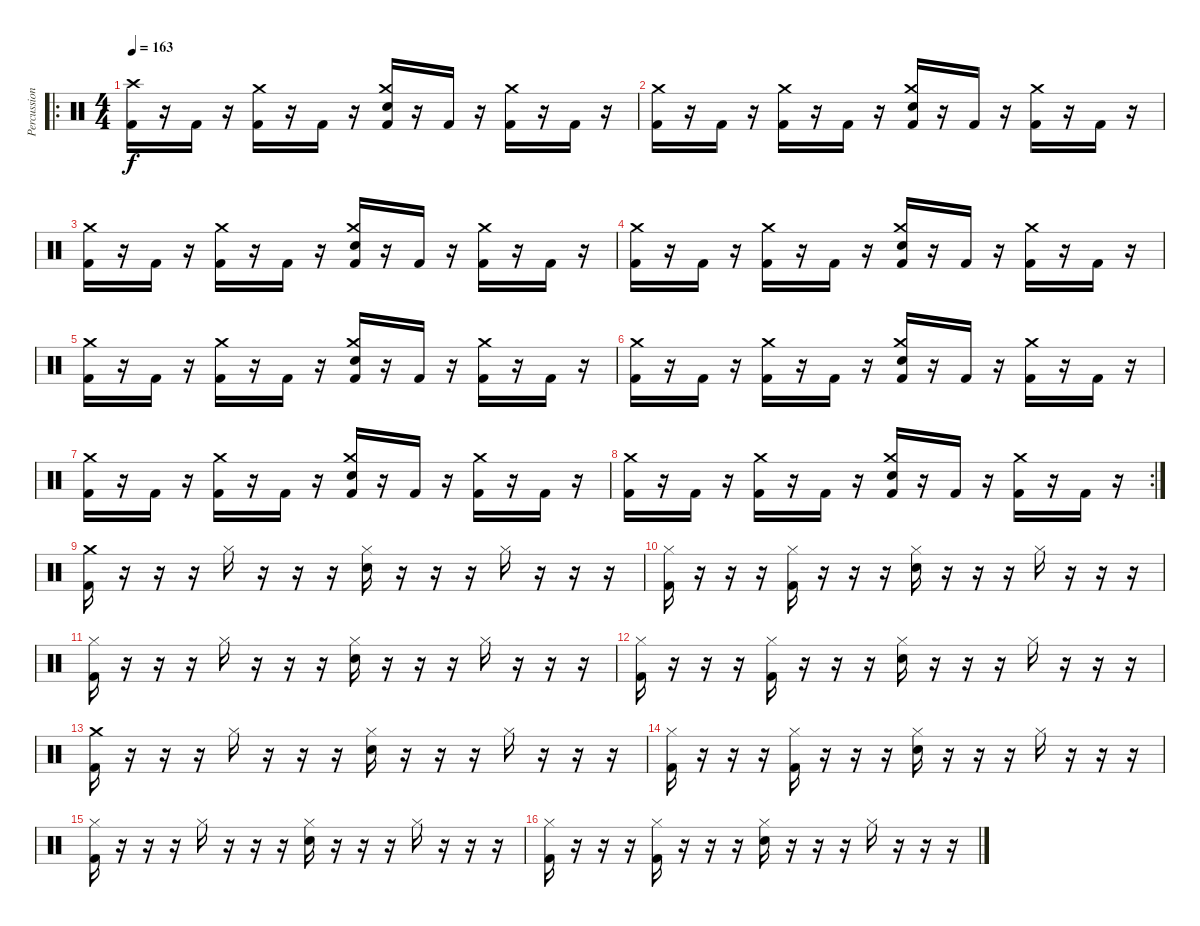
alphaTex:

\track ("Percussion" "Percussion") {instrument percussion}
\staff {score}
\articulation defaults
\ro
\ts (4 4)
\tempo 163
\clef neutral
\ks c
("Crash high (hit)" "Kick (hit) 2").16{dy f} r.16 "Kick (hit) 2".16 r.16 ("Crash medium (hit)" "Kick (hit) 2").16 r.16 "Kick (hit) 2".16 r.16 ("Crash medium (hit)" "Snare (hit) 2" "Kick (hit) 2").16 r.16 "Kick (hit) 2".16 r.16 ("Crash medium (hit)" "Kick (hit) 2").16 r.16 "Kick (hit) 2".16 r.16 |
("Crash medium (hit)" "Kick (hit) 2").16 r.16 "Kick (hit) 2".16 r.16 ("Crash medium (hit)" "Kick (hit) 2").16 r.16 "Kick (hit) 2".16 r.16 ("Crash medium (hit)" "Snare (hit) 2" "Kick (hit) 2").16 r.16 "Kick (hit) 2".16 r.16 ("Crash medium (hit)" "Kick (hit) 2").16 r.16 "Kick (hit) 2".16 r.16 |
("Crash medium (hit)" "Kick (hit) 2").16 r.16 "Kick (hit) 2".16 r.16 ("Crash medium (hit)" "Kick (hit) 2").16 r.16 "Kick (hit) 2".16 r.16 ("Crash medium (hit)" "Snare (hit) 2" "Kick (hit) 2").16 r.16 "Kick (hit) 2".16 r.16 ("Crash medium (hit)" "Kick (hit) 2").16 r.16 "Kick (hit) 2".16 r.16 |
("Crash medium (hit)" "Kick (hit) 2").16 r.16 "Kick (hit) 2".16 r.16 ("Crash medium (hit)" "Kick (hit) 2").16 r.16 "Kick (hit) 2".16 r.16 ("Crash medium (hit)" "Snare (hit) 2" "Kick (hit) 2").16 r.16 "Kick (hit) 2".16 r.16 ("Crash medium (hit)" "Kick (hit) 2").16 r.16 "Kick (hit) 2".16 r.16 |
("Crash medium (hit)" "Kick (hit) 2").16 r.16 "Kick (hit) 2".16 r.16 ("Crash medium (hit)" "Kick (hit) 2").16 r.16 "Kick (hit) 2".16 r.16 ("Crash medium (hit)" "Snare (hit) 2" "Kick (hit) 2").16 r.16 "Kick (hit) 2".16 r.16 ("Crash medium (hit)" "Kick (hit) 2").16 r.16 "Kick (hit) 2".16 r.16 |
("Crash medium (hit)" "Kick (hit) 2").16 r.16 "Kick (hit) 2".16 r.16 ("Crash medium (hit)" "Kick (hit) 2").16 r.16 "Kick (hit) 2".16 r.16 ("Crash medium (hit)" "Snare (hit) 2" "Kick (hit) 2").16 r.16 "Kick (hit) 2".16 r.16 ("Crash medium (hit)" "Kick (hit) 2").16 r.16 "Kick (hit) 2".16 r.16 |
("Crash medium (hit)" "Kick (hit) 2").16 r.16 "Kick (hit) 2".16 r.16 ("Crash medium (hit)" "Kick (hit) 2").16 r.16 "Kick (hit) 2".16 r.16 ("Crash medium (hit)" "Snare (hit) 2" "Kick (hit) 2").16 r.16 "Kick (hit) 2".16 r.16 ("Crash medium (hit)" "Kick (hit) 2").16 r.16 "Kick (hit) 2".16 r.16 |
\rc 2
("Crash medium (hit)" "Kick (hit) 2").16 r.16 "Kick (hit) 2".16 r.16 ("Crash medium (hit)" "Kick (hit) 2").16 r.16 "Kick (hit) 2".16 r.16 ("Crash medium (hit)" "Snare (hit) 2" "Kick (hit) 2").16 r.16 "Kick (hit) 2".16 r.16 ("Crash medium (hit)" "Kick (hit) 2").16 r.16 "Kick (hit) 2".16 r.16 |
("Crash medium (hit)" "Kick (hit) 2").16 r.16 r.16 r.16 "Hi-Hat (closed)".16 r.16 r.16 r.16 ("Hi-Hat (closed)" "Snare (hit) 2").16 r.16 r.16 r.16 "Hi-Hat (closed)".16 r.16 r.16 r.16 |
("Hi-Hat (closed)" "Kick (hit) 2").16 r.16 r.16 r.16 ("Hi-Hat (closed)" "Kick (hit) 2").16 r.16 r.16 r.16 ("Hi-Hat (closed)" "Snare (hit) 2").16 r.16 r.16 r.16 "Hi-Hat (closed)".16 r.16 r.16 r.16 |
("Hi-Hat (closed)" "Kick (hit) 2").16 r.16 r.16 r.16 "Hi-Hat (closed)".16 r.16 r.16 r.16 ("Hi-Hat (closed)" "Snare (hit) 2").16 r.16 r.16 r.16 "Hi-Hat (closed)".16 r.16 r.16 r.16 |
("Hi-Hat (closed)" "Kick (hit) 2").16 r.16 r.16 r.16 ("Hi-Hat (closed)" "Kick (hit) 2").16 r.16 r.16 r.16 ("Hi-Hat (closed)" "Snare (hit) 2").16 r.16 r.16 r.16 "Hi-Hat (closed)".16 r.16 r.16 r.16 |
("Crash medium (hit)" "Kick (hit) 2").16 r.16 r.16 r.16 "Hi-Hat (closed)".16 r.16 r.16 r.16 ("Hi-Hat (closed)" "Snare (hit) 2").16 r.16 r.16 r.16 "Hi-Hat (closed)".16 r.16 r.16 r.16 |
("Hi-Hat (closed)" "Kick (hit) 2").16 r.16 r.16 r.16 ("Hi-Hat (closed)" "Kick (hit) 2").16 r.16 r.16 r.16 ("Hi-Hat (closed)" "Snare (hit) 2").16 r.16 r.16 r.16 "Hi-Hat (closed)".16 r.16 r.16 r.16 |
("Hi-Hat (closed)" "Kick (hit) 2").16 r.16 r.16 r.16 "Hi-Hat (closed)".16 r.16 r.16 r.16 ("Hi-Hat (closed)" "Snare (hit) 2").16 r.16 r.16 r.16 "Hi-Hat (closed)".16 r.16 r.16 r.16 |
("Hi-Hat (closed)" "Kick (hit) 2").16 r.16 r.16 r.16 ("Hi-Hat (closed)" "Kick (hit) 2").16 r.16 r.16 r.16 ("Hi-Hat (closed)" "Snare (hit) 2").16 r.16 r.16 r.16 "Hi-Hat (closed)".16 r.16 r.16 r.16
